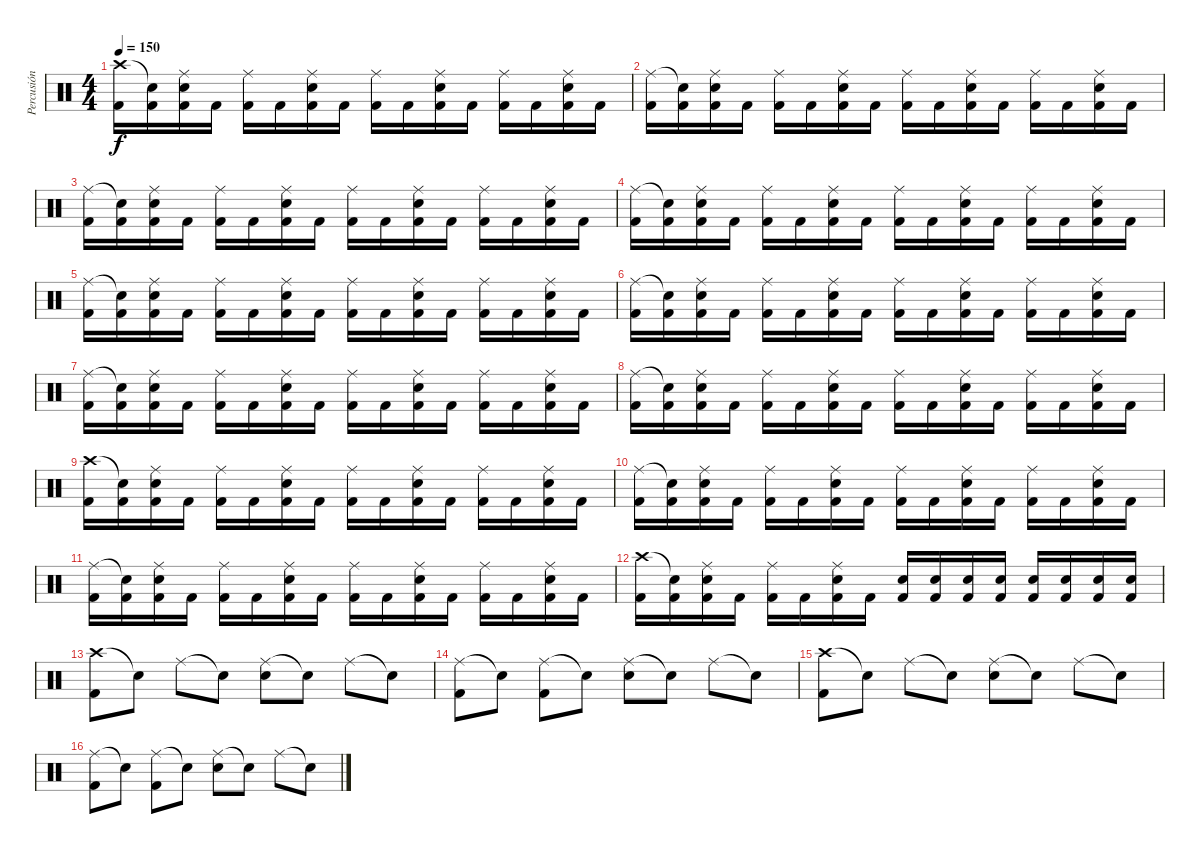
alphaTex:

\track ("Percusión" "Percusión") {instrument percussion}
\staff {score}
\articulation defaults
\ts (4 4)
\tempo 150
\clef neutral
\ks c
("Crash high (hit)" "Kick (hit) 2").16{dy f} ("Snare (hit)"{t} "Kick (hit) 2").16 ("Ride (middle)" "Electric Snare (hit)" "Kick (hit) 2").16 "Kick (hit) 2".16 ("Ride (middle)" "Kick (hit) 2").16 "Kick (hit) 2".16 ("Ride (middle)" "Electric Snare (hit)" "Kick (hit) 2").16 "Kick (hit) 2".16 ("Ride (middle)" "Kick (hit) 2").16 "Kick (hit) 2".16 ("Ride (middle)" "Electric Snare (hit)" "Kick (hit) 2").16 "Kick (hit) 2".16 ("Ride (middle)" "Kick (hit) 2").16 "Kick (hit) 2".16 ("Ride (middle)" "Electric Snare (hit)" "Kick (hit) 2").16 "Kick (hit) 2".16 |
("Ride (middle)" "Kick (hit) 2").16 ("Snare (hit)"{t} "Kick (hit) 2").16 ("Ride (middle)" "Electric Snare (hit)" "Kick (hit) 2").16 "Kick (hit) 2".16 ("Ride (middle)" "Kick (hit) 2").16 "Kick (hit) 2".16 ("Ride (middle)" "Electric Snare (hit)" "Kick (hit) 2").16 "Kick (hit) 2".16 ("Ride (middle)" "Kick (hit) 2").16 "Kick (hit) 2".16 ("Ride (middle)" "Electric Snare (hit)" "Kick (hit) 2").16 "Kick (hit) 2".16 ("Ride (middle)" "Kick (hit) 2").16 "Kick (hit) 2".16 ("Ride (middle)" "Electric Snare (hit)" "Kick (hit) 2").16 "Kick (hit) 2".16 |
("Ride (middle)" "Kick (hit) 2").16 ("Snare (hit)"{t} "Kick (hit) 2").16 ("Ride (middle)" "Electric Snare (hit)" "Kick (hit) 2").16 "Kick (hit) 2".16 ("Ride (middle)" "Kick (hit) 2").16 "Kick (hit) 2".16 ("Ride (middle)" "Electric Snare (hit)" "Kick (hit) 2").16 "Kick (hit) 2".16 ("Ride (middle)" "Kick (hit) 2").16 "Kick (hit) 2".16 ("Ride (middle)" "Electric Snare (hit)" "Kick (hit) 2").16 "Kick (hit) 2".16 ("Ride (middle)" "Kick (hit) 2").16 "Kick (hit) 2".16 ("Ride (middle)" "Electric Snare (hit)" "Kick (hit) 2").16 "Kick (hit) 2".16 |
("Ride (middle)" "Kick (hit) 2").16 ("Snare (hit)"{t} "Kick (hit) 2").16 ("Ride (middle)" "Electric Snare (hit)" "Kick (hit) 2").16 "Kick (hit) 2".16 ("Ride (middle)" "Kick (hit) 2").16 "Kick (hit) 2".16 ("Ride (middle)" "Electric Snare (hit)" "Kick (hit) 2").16 "Kick (hit) 2".16 ("Ride (middle)" "Kick (hit) 2").16 "Kick (hit) 2".16 ("Ride (middle)" "Electric Snare (hit)" "Kick (hit) 2").16 "Kick (hit) 2".16 ("Ride (middle)" "Kick (hit) 2").16 "Kick (hit) 2".16 ("Ride (middle)" "Electric Snare (hit)" "Kick (hit) 2").16 "Kick (hit) 2".16 |
("Ride (middle)" "Kick (hit) 2").16 ("Snare (hit)"{t} "Kick (hit) 2").16 ("Ride (middle)" "Electric Snare (hit)" "Kick (hit) 2").16 "Kick (hit) 2".16 ("Ride (middle)" "Kick (hit) 2").16 "Kick (hit) 2".16 ("Ride (middle)" "Electric Snare (hit)" "Kick (hit) 2").16 "Kick (hit) 2".16 ("Ride (middle)" "Kick (hit) 2").16 "Kick (hit) 2".16 ("Ride (middle)" "Electric Snare (hit)" "Kick (hit) 2").16 "Kick (hit) 2".16 ("Ride (middle)" "Kick (hit) 2").16 "Kick (hit) 2".16 ("Ride (middle)" "Electric Snare (hit)" "Kick (hit) 2").16 "Kick (hit) 2".16 |
("Ride (middle)" "Kick (hit) 2").16 ("Snare (hit)"{t} "Kick (hit) 2").16 ("Ride (middle)" "Electric Snare (hit)" "Kick (hit) 2").16 "Kick (hit) 2".16 ("Ride (middle)" "Kick (hit) 2").16 "Kick (hit) 2".16 ("Ride (middle)" "Electric Snare (hit)" "Kick (hit) 2").16 "Kick (hit) 2".16 ("Ride (middle)" "Kick (hit) 2").16 "Kick (hit) 2".16 ("Ride (middle)" "Electric Snare (hit)" "Kick (hit) 2").16 "Kick (hit) 2".16 ("Ride (middle)" "Kick (hit) 2").16 "Kick (hit) 2".16 ("Ride (middle)" "Electric Snare (hit)" "Kick (hit) 2").16 "Kick (hit) 2".16 |
("Ride (middle)" "Kick (hit) 2").16 ("Snare (hit)"{t} "Kick (hit) 2").16 ("Ride (middle)" "Electric Snare (hit)" "Kick (hit) 2").16 "Kick (hit) 2".16 ("Ride (middle)" "Kick (hit) 2").16 "Kick (hit) 2".16 ("Ride (middle)" "Electric Snare (hit)" "Kick (hit) 2").16 "Kick (hit) 2".16 ("Ride (middle)" "Kick (hit) 2").16 "Kick (hit) 2".16 ("Ride (middle)" "Electric Snare (hit)" "Kick (hit) 2").16 "Kick (hit) 2".16 ("Ride (middle)" "Kick (hit) 2").16 "Kick (hit) 2".16 ("Ride (middle)" "Electric Snare (hit)" "Kick (hit) 2").16 "Kick (hit) 2".16 |
("Ride (middle)" "Kick (hit) 2").16 ("Snare (hit)"{t} "Kick (hit) 2").16 ("Ride (middle)" "Electric Snare (hit)" "Kick (hit) 2").16 "Kick (hit) 2".16 ("Ride (middle)" "Kick (hit) 2").16 "Kick (hit) 2".16 ("Ride (middle)" "Electric Snare (hit)" "Kick (hit) 2").16 "Kick (hit) 2".16 ("Ride (middle)" "Kick (hit) 2").16 "Kick (hit) 2".16 ("Ride (middle)" "Electric Snare (hit)" "Kick (hit) 2").16 "Kick (hit) 2".16 ("Ride (middle)" "Kick (hit) 2").16 "Kick (hit) 2".16 ("Ride (middle)" "Electric Snare (hit)" "Kick (hit) 2").16 "Kick (hit) 2".16 |
("Crash high (hit)" "Kick (hit) 2").16 ("Snare (hit)"{t} "Kick (hit) 2").16 ("Ride (middle)" "Electric Snare (hit)" "Kick (hit) 2").16 "Kick (hit) 2".16 ("Ride (middle)" "Kick (hit) 2").16 "Kick (hit) 2".16 ("Ride (middle)" "Electric Snare (hit)" "Kick (hit) 2").16 "Kick (hit) 2".16 ("Ride (middle)" "Kick (hit) 2").16 "Kick (hit) 2".16 ("Ride (middle)" "Electric Snare (hit)" "Kick (hit) 2").16 "Kick (hit) 2".16 ("Ride (middle)" "Kick (hit) 2").16 "Kick (hit) 2".16 ("Ride (middle)" "Electric Snare (hit)" "Kick (hit) 2").16 "Kick (hit) 2".16 |
("Ride (middle)" "Kick (hit) 2").16 ("Snare (hit)"{t} "Kick (hit) 2").16 ("Ride (middle)" "Electric Snare (hit)" "Kick (hit) 2").16 "Kick (hit) 2".16 ("Ride (middle)" "Kick (hit) 2").16 "Kick (hit) 2".16 ("Ride (middle)" "Electric Snare (hit)" "Kick (hit) 2").16 "Kick (hit) 2".16 ("Ride (middle)" "Kick (hit) 2").16 "Kick (hit) 2".16 ("Ride (middle)" "Electric Snare (hit)" "Kick (hit) 2").16 "Kick (hit) 2".16 ("Ride (middle)" "Kick (hit) 2").16 "Kick (hit) 2".16 ("Ride (middle)" "Electric Snare (hit)" "Kick (hit) 2").16 "Kick (hit) 2".16 |
("Ride (middle)" "Kick (hit) 2").16 ("Snare (hit)"{t} "Kick (hit) 2").16 ("Ride (middle)" "Electric Snare (hit)" "Kick (hit) 2").16 "Kick (hit) 2".16 ("Ride (middle)" "Kick (hit) 2").16 "Kick (hit) 2".16 ("Ride (middle)" "Electric Snare (hit)" "Kick (hit) 2").16 "Kick (hit) 2".16 ("Ride (middle)" "Kick (hit) 2").16 "Kick (hit) 2".16 ("Ride (middle)" "Electric Snare (hit)" "Kick (hit) 2").16 "Kick (hit) 2".16 ("Ride (middle)" "Kick (hit) 2").16 "Kick (hit) 2".16 ("Ride (middle)" "Electric Snare (hit)" "Kick (hit) 2").16 "Kick (hit) 2".16 |
("Crash high (hit)" "Kick (hit) 2").16 ("Snare (hit)"{t} "Kick (hit) 2").16 ("Ride (middle)" "Electric Snare (hit)" "Kick (hit) 2").16 "Kick (hit) 2".16 ("Ride (middle)" "Kick (hit) 2").16 "Kick (hit) 2".16 ("Ride (middle)" "Electric Snare (hit)" "Kick (hit) 2").16 "Kick (hit) 2".16 ("Electric Snare (hit)" "Kick (hit) 2").16 ("Electric Snare (hit)" "Kick (hit) 2").16 ("Electric Snare (hit)" "Kick (hit) 2").16 ("Electric Snare (hit)" "Kick (hit) 2").16 ("Electric Snare (hit)" "Kick (hit) 2").16 ("Electric Snare (hit)" "Kick (hit) 2").16 ("Electric Snare (hit)" "Kick (hit) 2").16 ("Electric Snare (hit)" "Kick (hit) 2").16 |
("Crash high (hit)" "Kick (hit) 2").8 "Snare (hit)"{t}.8 "Ride (middle)".8 "Snare (hit)"{t}.8 ("Ride (middle)" "Electric Snare (hit)").8 "Snare (hit)"{t}.8 "Ride (middle)".8 "Snare (hit)"{t}.8 |
("Ride (middle)" "Kick (hit) 2").8 "Snare (hit)"{t}.8 ("Ride (middle)" "Kick (hit) 2").8 "Snare (hit)"{t}.8 ("Ride (middle)" "Electric Snare (hit)").8 "Snare (hit)"{t}.8 "Ride (middle)".8 "Snare (hit)"{t}.8 |
("Crash high (hit)" "Kick (hit) 2").8 "Snare (hit)"{t}.8 "Ride (middle)".8 "Snare (hit)"{t}.8 ("Ride (middle)" "Electric Snare (hit)").8 "Snare (hit)"{t}.8 "Ride (middle)".8 "Snare (hit)"{t}.8 |
("Ride (middle)" "Kick (hit) 2").8 "Snare (hit)"{t}.8 ("Ride (middle)" "Kick (hit) 2").8 "Snare (hit)"{t}.8 ("Ride (middle)" "Electric Snare (hit)").8 "Snare (hit)"{t}.8 "Ride (middle)".8 "Snare (hit)"{t}.8
